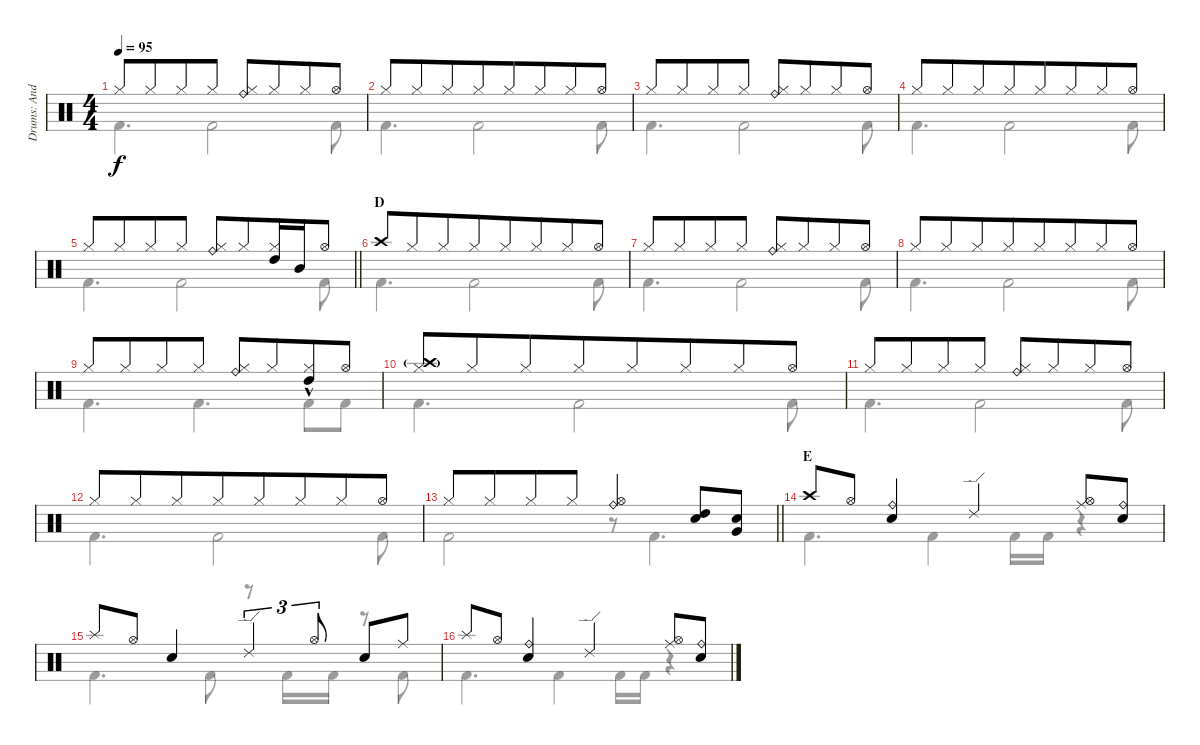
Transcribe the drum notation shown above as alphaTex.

\track ("Drums: Andy" "Drums: And") {instrument percussion}
\staff {score}
\articulation defaults
\voice
\ts (4 4)
\tempo 95
\clef neutral
\ks c "Hi-Hat (closed)".8{dy f} "Hi-Hat (closed)".8{beam merge} "Hi-Hat (closed)".8 "Hi-Hat (closed)".8
("Ride (bell)" "Hi-Hat (closed)").8 "Hi-Hat (closed)".8{beam merge} "Hi-Hat (closed)".8 "Hi-Hat (open)".8 |
"Hi-Hat (closed)".8{beam merge} "Hi-Hat (closed)".8{beam merge} "Hi-Hat (closed)".8 "Hi-Hat (closed)".8{beam merge} "Hi-Hat (closed)".8 "Hi-Hat (closed)".8{beam merge} "Hi-Hat (closed)".8 "Hi-Hat (open)".8 |
"Hi-Hat (closed)".8 "Hi-Hat (closed)".8{beam merge} "Hi-Hat (closed)".8 "Hi-Hat (closed)".8 ("Ride (bell)" "Hi-Hat (closed)").8 "Hi-Hat (closed)".8{beam merge} "Hi-Hat (closed)".8 "Hi-Hat (open)".8 |
"Hi-Hat (closed)".8{beam merge} "Hi-Hat (closed)".8{beam merge} "Hi-Hat (closed)".8 "Hi-Hat (closed)".8{beam merge} "Hi-Hat (closed)".8 "Hi-Hat (closed)".8{beam merge} "Hi-Hat (closed)".8 "Hi-Hat (open)".8 |
\barLineRight lightlight "Hi-Hat (closed)".8 "Hi-Hat (closed)".8{beam merge} "Hi-Hat (closed)".8 "Hi-Hat (closed)".8
("Ride (bell)" "Hi-Hat (closed)").8 "Hi-Hat (closed)".8{beam merge} ("Hi-Hat (closed)" "High Tom (hit)").16 "Mid Tom (hit)".16 "Hi-Hat (open)".8 |
\section ("" "D")
"Crash high (hit)".8{beam merge} "Hi-Hat (closed)".8{beam merge} "Hi-Hat (closed)".8 "Hi-Hat (closed)".8{beam merge} "Hi-Hat (closed)".8 "Hi-Hat (closed)".8{beam merge} "Hi-Hat (closed)".8 "Hi-Hat (open)".8 |
"Hi-Hat (closed)".8 "Hi-Hat (closed)".8{beam merge} "Hi-Hat (closed)".8 "Hi-Hat (closed)".8 ("Ride (bell)" "Hi-Hat (closed)").8 "Hi-Hat (closed)".8{beam merge} "Hi-Hat (closed)".8 "Hi-Hat (open)".8 |
"Hi-Hat (closed)".8{beam merge} "Hi-Hat (closed)".8{beam merge} "Hi-Hat (closed)".8 "Hi-Hat (closed)".8{beam merge} "Hi-Hat (closed)".8 "Hi-Hat (closed)".8{beam merge} "Hi-Hat (closed)".8 "Hi-Hat (open)".8 |
"Hi-Hat (closed)".8 "Hi-Hat (closed)".8{beam merge} "Hi-Hat (closed)".8 "Hi-Hat (closed)".8 ("Ride (bell)" "Hi-Hat (closed)").8 "Hi-Hat (closed)".8{beam merge} ("Hi-Hat (closed)" "High Tom (hit)"{hac}).8 "Hi-Hat (open)".8 |
("Crash high (hit)"{g} "Hi-Hat (closed)").8{beam merge} "Hi-Hat (closed)".8{beam merge} "Hi-Hat (closed)".8 "Hi-Hat (closed)".8{beam merge} "Hi-Hat (closed)".8 "Hi-Hat (closed)".8{beam merge} "Hi-Hat (closed)".8 "Hi-Hat (open)".8 |
"Hi-Hat (closed)".8 "Hi-Hat (closed)".8{beam merge} "Hi-Hat (closed)".8 "Hi-Hat (closed)".8 ("Ride (bell)" "Hi-Hat (closed)").8 "Hi-Hat (closed)".8{beam merge} "Hi-Hat (closed)".8 "Hi-Hat (open)".8 |
"Hi-Hat (closed)".8{beam merge} "Hi-Hat (closed)".8{beam merge} "Hi-Hat (closed)".8 "Hi-Hat (closed)".8{beam merge} "Hi-Hat (closed)".8 "Hi-Hat (closed)".8{beam merge} "Hi-Hat (closed)".8 "Hi-Hat (open)".8 |
\barLineRight lightlight "Hi-Hat (closed)".8 "Hi-Hat (closed)".8{beam merge} "Hi-Hat (closed)".8 "Hi-Hat (closed)".8
("Ride (bell)" "Hi-Hat (open)").4 ("Snare (hit) 2" "High Tom (hit)").8 ("Snare (hit) 2" "Very Low Tom (hit)").8 |
\section ("" "E")
"Crash high (hit)".8 "Hi-Hat (open)".8 ("Ride (bell)" "Electric Snare (hit)").4 "Ride (edge) 2".4 ("Ride (middle)" "Hi-Hat (open)").8 ("Ride (bell)" "Electric Snare (hit)").8 |
"Splash (hit)".8 "Hi-Hat (open)".8 "Electric Snare (hit)".4 "Ride (edge) 2".4{tu (3 2)} "Hi-Hat (open)".8{tu (3 2)} "Electric Snare (hit)".8 "Ride (middle)".8 |
"Splash (hit)".8 "Hi-Hat (open)".8 ("Ride (bell)" "Electric Snare (hit)").4 "Ride (edge) 2".4 ("Ride (middle)" "Hi-Hat (open)").8 ("Ride (bell)" "Electric Snare (hit)").8
\voice
\clef neutral
\ottava regular
\simile none
\ks c "Kick (hit) 2".4{d dy f} "Kick (hit) 2".2 "Kick (hit) 2".8
|
"Kick (hit) 2".4{d} "Kick (hit) 2".2 "Kick (hit) 2".8 |
"Kick (hit) 2".4{d} "Kick (hit) 2".2 "Kick (hit) 2".8 |
"Kick (hit) 2".4{d} "Kick (hit) 2".2 "Kick (hit) 2".8 |
\barLineRight lightlight "Kick (hit) 2".4{d} "Kick (hit) 2".2 "Kick (hit) 2".8
|
"Kick (hit) 2".4{d} "Kick (hit) 2".2 "Kick (hit) 2".8 |
"Kick (hit) 2".4{d} "Kick (hit) 2".2 "Kick (hit) 2".8 |
"Kick (hit) 2".4{d} "Kick (hit) 2".2 "Kick (hit) 2".8 |
"Kick (hit) 2".4{d} "Kick (hit) 2".4{d} "Kick (hit) 2".8 "Kick (hit) 2".8 |
"Kick (hit) 2".4{d} "Kick (hit) 2".2 "Kick (hit) 2".8 |
"Kick (hit) 2".4{d} "Kick (hit) 2".2 "Kick (hit) 2".8 |
"Kick (hit) 2".4{d} "Kick (hit) 2".2 "Kick (hit) 2".8 |
\barLineRight lightlight "Kick (hit) 2".2
r.8 "Kick (hit) 2".4{d} |
"Kick (hit) 2".4{d} "Kick (hit) 2".4 "Kick (hit) 2".16 "Kick (hit) 2".16 r.4 |
"Kick (hit) 2".4{d} "Kick (hit) 2".8 r.8 "Kick (hit) 2".16 "Kick (hit) 2".16 r.8 "Kick (hit) 2".8 |
"Kick (hit) 2".4{d} "Kick (hit) 2".4 "Kick (hit) 2".16 "Kick (hit) 2".16 r.4
